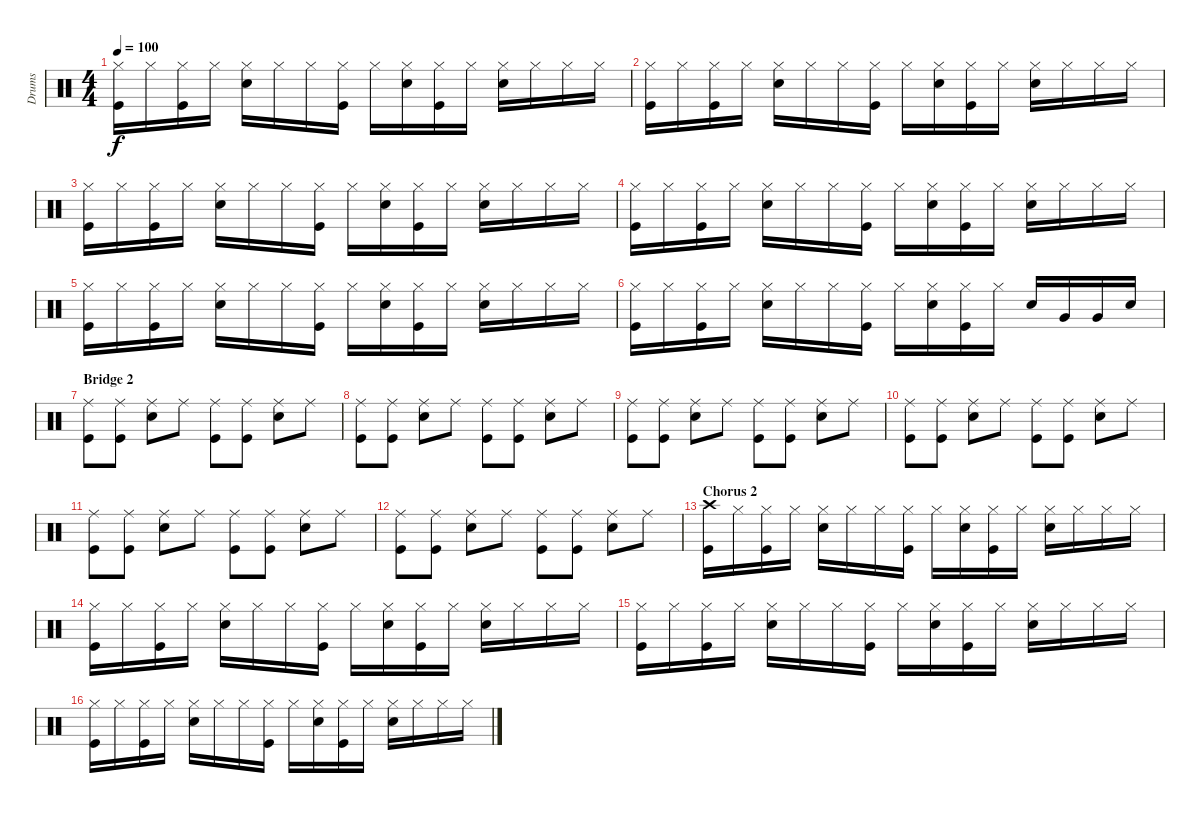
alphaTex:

\track ("Drums" "Drums") {instrument percussion}
\staff {score}
\articulation defaults
\ts (4 4)
\tempo 100
\clef neutral
\ks c
("Hi-Hat (closed)" "Kick (hit)").16{dy f} "Hi-Hat (closed)"{x}.16 ("Hi-Hat (closed)" "Kick (hit)").16 "Hi-Hat (closed)"{x}.16 ("Hi-Hat (closed)" "Electric Snare (hit)").16 "Hi-Hat (closed)"{x}.16 "Hi-Hat (closed)".16 ("Hi-Hat (closed)"{x} "Kick (hit)").16 "Hi-Hat (closed)".16 ("Hi-Hat (closed)"{x} "Electric Snare (hit)").16 ("Hi-Hat (closed)" "Kick (hit)").16 "Hi-Hat (closed)"{x}.16 ("Hi-Hat (closed)" "Electric Snare (hit)").16 "Hi-Hat (closed)"{x}.16 "Hi-Hat (closed)".16 "Hi-Hat (closed)"{x}.16 |
("Hi-Hat (closed)" "Kick (hit)").16 "Hi-Hat (closed)"{x}.16 ("Hi-Hat (closed)" "Kick (hit)").16 "Hi-Hat (closed)"{x}.16 ("Hi-Hat (closed)" "Electric Snare (hit)").16 "Hi-Hat (closed)"{x}.16 "Hi-Hat (closed)".16 ("Hi-Hat (closed)"{x} "Kick (hit)").16 "Hi-Hat (closed)".16 ("Hi-Hat (closed)"{x} "Electric Snare (hit)").16 ("Hi-Hat (closed)" "Kick (hit)").16 "Hi-Hat (closed)"{x}.16 ("Hi-Hat (closed)" "Electric Snare (hit)").16 "Hi-Hat (closed)"{x}.16 "Hi-Hat (closed)".16 "Hi-Hat (closed)"{x}.16 |
("Hi-Hat (closed)" "Kick (hit)").16 "Hi-Hat (closed)"{x}.16 ("Hi-Hat (closed)" "Kick (hit)").16 "Hi-Hat (closed)"{x}.16 ("Hi-Hat (closed)" "Electric Snare (hit)").16 "Hi-Hat (closed)"{x}.16 "Hi-Hat (closed)".16 ("Hi-Hat (closed)"{x} "Kick (hit)").16 "Hi-Hat (closed)".16 ("Hi-Hat (closed)"{x} "Electric Snare (hit)").16 ("Hi-Hat (closed)" "Kick (hit)").16 "Hi-Hat (closed)"{x}.16 ("Hi-Hat (closed)" "Electric Snare (hit)").16 "Hi-Hat (closed)"{x}.16 "Hi-Hat (closed)".16 "Hi-Hat (closed)"{x}.16 |
("Hi-Hat (closed)" "Kick (hit)").16 "Hi-Hat (closed)"{x}.16 ("Hi-Hat (closed)" "Kick (hit)").16 "Hi-Hat (closed)"{x}.16 ("Hi-Hat (closed)" "Electric Snare (hit)").16 "Hi-Hat (closed)"{x}.16 "Hi-Hat (closed)".16 ("Hi-Hat (closed)"{x} "Kick (hit)").16 "Hi-Hat (closed)".16 ("Hi-Hat (closed)"{x} "Electric Snare (hit)").16 ("Hi-Hat (closed)" "Kick (hit)").16 "Hi-Hat (closed)"{x}.16 ("Hi-Hat (closed)" "Electric Snare (hit)").16 "Hi-Hat (closed)"{x}.16 "Hi-Hat (closed)".16 "Hi-Hat (closed)"{x}.16 |
("Hi-Hat (closed)" "Kick (hit)").16 "Hi-Hat (closed)"{x}.16 ("Hi-Hat (closed)" "Kick (hit)").16 "Hi-Hat (closed)"{x}.16 ("Hi-Hat (closed)" "Electric Snare (hit)").16 "Hi-Hat (closed)"{x}.16 "Hi-Hat (closed)".16 ("Hi-Hat (closed)"{x} "Kick (hit)").16 "Hi-Hat (closed)".16 ("Hi-Hat (closed)"{x} "Electric Snare (hit)").16 ("Hi-Hat (closed)" "Kick (hit)").16 "Hi-Hat (closed)"{x}.16 ("Hi-Hat (closed)" "Electric Snare (hit)").16 "Hi-Hat (closed)"{x}.16 "Hi-Hat (closed)".16 "Hi-Hat (closed)"{x}.16 |
("Hi-Hat (closed)" "Kick (hit)").16 "Hi-Hat (closed)"{x}.16 ("Hi-Hat (closed)" "Kick (hit)").16 "Hi-Hat (closed)"{x}.16 ("Hi-Hat (closed)" "Electric Snare (hit)").16 "Hi-Hat (closed)"{x}.16 "Hi-Hat (closed)".16 ("Hi-Hat (closed)"{x} "Kick (hit)").16 "Hi-Hat (closed)".16 ("Hi-Hat (closed)"{x} "Electric Snare (hit)").16 ("Hi-Hat (closed)" "Kick (hit)").16 "Hi-Hat (closed)"{x}.16 "Electric Snare (hit)".16 "Very Low Tom (hit)".16 "Very Low Tom (hit)".16 "Electric Snare (hit)".16 |
\section ("" "Bridge 2")
("Ride (middle)" "Kick (hit)").8 ("Ride (middle)" "Kick (hit)").8 ("Ride (middle)" "Electric Snare (hit)").8 "Ride (middle)".8 ("Ride (middle)" "Kick (hit)").8 ("Ride (middle)" "Kick (hit)").8 ("Ride (middle)" "Electric Snare (hit)").8 "Ride (middle)".8 |
("Ride (middle)" "Kick (hit)").8 ("Ride (middle)" "Kick (hit)").8 ("Ride (middle)" "Electric Snare (hit)").8 "Ride (middle)".8 ("Ride (middle)" "Kick (hit)").8 ("Ride (middle)" "Kick (hit)").8 ("Ride (middle)" "Electric Snare (hit)").8 "Ride (middle)".8 |
("Ride (middle)" "Kick (hit)").8 ("Ride (middle)" "Kick (hit)").8 ("Ride (middle)" "Electric Snare (hit)").8 "Ride (middle)".8 ("Ride (middle)" "Kick (hit)").8 ("Ride (middle)" "Kick (hit)").8 ("Ride (middle)" "Electric Snare (hit)").8 "Ride (middle)".8 |
("Ride (middle)" "Kick (hit)").8 ("Ride (middle)" "Kick (hit)").8 ("Ride (middle)" "Electric Snare (hit)").8 "Ride (middle)".8 ("Ride (middle)" "Kick (hit)").8 ("Ride (middle)" "Kick (hit)").8 ("Ride (middle)" "Electric Snare (hit)").8 "Ride (middle)".8 |
("Ride (middle)" "Kick (hit)").8 ("Ride (middle)" "Kick (hit)").8 ("Ride (middle)" "Electric Snare (hit)").8 "Ride (middle)".8 ("Ride (middle)" "Kick (hit)").8 ("Ride (middle)" "Kick (hit)").8 ("Ride (middle)" "Electric Snare (hit)").8 "Ride (middle)".8 |
("Ride (middle)" "Kick (hit)").8 ("Ride (middle)" "Kick (hit)").8 ("Ride (middle)" "Electric Snare (hit)").8 "Ride (middle)".8 ("Ride (middle)" "Kick (hit)").8 ("Ride (middle)" "Kick (hit)").8 ("Ride (middle)" "Electric Snare (hit)").8 "Ride (middle)".8 |
\section ("" "Chorus 2")
("Crash high (hit)" "Kick (hit)").16 "Hi-Hat (closed)"{x}.16 ("Hi-Hat (closed)" "Kick (hit)").16 "Hi-Hat (closed)"{x}.16 ("Hi-Hat (closed)" "Electric Snare (hit)").16 "Hi-Hat (closed)"{x}.16 "Hi-Hat (closed)".16 ("Hi-Hat (closed)"{x} "Kick (hit)").16 "Hi-Hat (closed)".16 ("Hi-Hat (closed)"{x} "Electric Snare (hit)").16 ("Hi-Hat (closed)" "Kick (hit)").16 "Hi-Hat (closed)"{x}.16 ("Hi-Hat (closed)" "Electric Snare (hit)").16 "Hi-Hat (closed)"{x}.16 "Hi-Hat (closed)".16 "Hi-Hat (closed)"{x}.16 |
("Hi-Hat (closed)" "Kick (hit)").16 "Hi-Hat (closed)"{x}.16 ("Hi-Hat (closed)" "Kick (hit)").16 "Hi-Hat (closed)"{x}.16 ("Hi-Hat (closed)" "Electric Snare (hit)").16 "Hi-Hat (closed)"{x}.16 "Hi-Hat (closed)".16 ("Hi-Hat (closed)"{x} "Kick (hit)").16 "Hi-Hat (closed)".16 ("Hi-Hat (closed)"{x} "Electric Snare (hit)").16 ("Hi-Hat (closed)" "Kick (hit)").16 "Hi-Hat (closed)"{x}.16 ("Hi-Hat (closed)" "Electric Snare (hit)").16 "Hi-Hat (closed)"{x}.16 "Hi-Hat (closed)".16 "Hi-Hat (closed)"{x}.16 |
("Hi-Hat (closed)" "Kick (hit)").16 "Hi-Hat (closed)"{x}.16 ("Hi-Hat (closed)" "Kick (hit)").16 "Hi-Hat (closed)"{x}.16 ("Hi-Hat (closed)" "Electric Snare (hit)").16 "Hi-Hat (closed)"{x}.16 "Hi-Hat (closed)".16 ("Hi-Hat (closed)"{x} "Kick (hit)").16 "Hi-Hat (closed)".16 ("Hi-Hat (closed)"{x} "Electric Snare (hit)").16 ("Hi-Hat (closed)" "Kick (hit)").16 "Hi-Hat (closed)"{x}.16 ("Hi-Hat (closed)" "Electric Snare (hit)").16 "Hi-Hat (closed)"{x}.16 "Hi-Hat (closed)".16 "Hi-Hat (closed)"{x}.16 |
("Hi-Hat (closed)" "Kick (hit)").16 "Hi-Hat (closed)"{x}.16 ("Hi-Hat (closed)" "Kick (hit)").16 "Hi-Hat (closed)"{x}.16 ("Hi-Hat (closed)" "Electric Snare (hit)").16 "Hi-Hat (closed)"{x}.16 "Hi-Hat (closed)".16 ("Hi-Hat (closed)"{x} "Kick (hit)").16 "Hi-Hat (closed)".16 ("Hi-Hat (closed)"{x} "Electric Snare (hit)").16 ("Hi-Hat (closed)" "Kick (hit)").16 "Hi-Hat (closed)"{x}.16 ("Hi-Hat (closed)" "Electric Snare (hit)").16 "Hi-Hat (closed)"{x}.16 "Hi-Hat (closed)".16 "Hi-Hat (closed)"{x}.16
